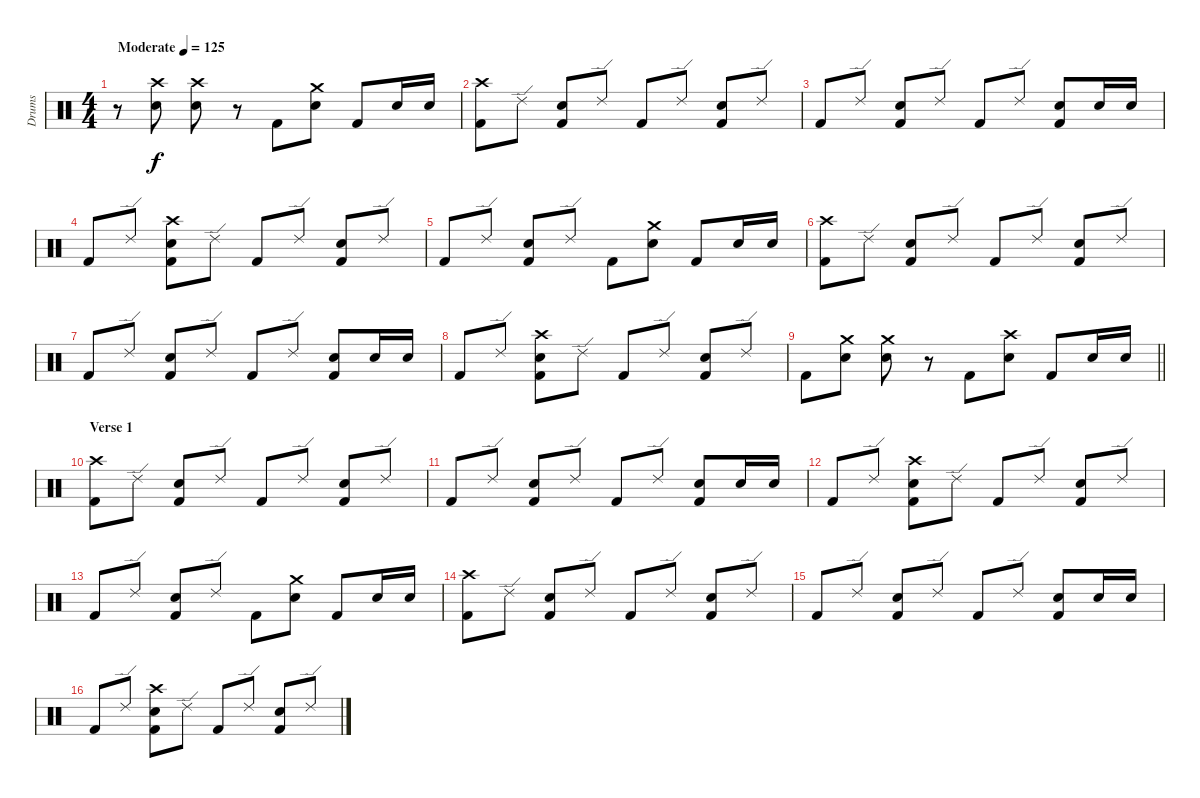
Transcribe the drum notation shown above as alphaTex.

\track ("Drums" "Drums") {instrument percussion}
\staff
\articulation defaults
\ts (4 4)
\tempo (125 "Moderate")
\clef neutral
\ks c
r.8{dy f} ("Crash high (hit)" "Electric Snare (hit)").8 ("Crash high (hit)" "Electric Snare (hit)").8 r.8 "Kick (hit) 2".8 ("Crash medium (hit)" "Electric Snare (hit)").8 "Kick (hit) 2".8 "Electric Snare (hit)".16 "Electric Snare (hit)".16 |
("Crash high (hit)" "Kick (hit) 2").8 "Ride (edge) 2".8 ("Electric Snare (hit)" "Kick (hit) 2").8 "Ride (edge) 2".8 "Kick (hit) 2".8 "Ride (edge) 2".8 ("Electric Snare (hit)" "Kick (hit) 2").8 "Ride (edge) 2".8 |
"Kick (hit) 2".8 "Ride (edge) 2".8 ("Electric Snare (hit)" "Kick (hit) 2").8 "Ride (edge) 2".8 "Kick (hit) 2".8 "Ride (edge) 2".8 ("Electric Snare (hit)" "Kick (hit) 2").8 "Electric Snare (hit)".16 "Electric Snare (hit)".16 |
"Kick (hit) 2".8 "Ride (edge) 2".8 ("Crash high (hit)" "Electric Snare (hit)" "Kick (hit) 2").8 "Ride (edge) 2".8 "Kick (hit) 2".8 "Ride (edge) 2".8 ("Electric Snare (hit)" "Kick (hit) 2").8 "Ride (edge) 2".8 |
"Kick (hit) 2".8 "Ride (edge) 2".8 ("Electric Snare (hit)" "Kick (hit) 2").8 "Ride (edge) 2".8 "Kick (hit) 2".8 ("Crash medium (hit)" "Electric Snare (hit)").8 "Kick (hit) 2".8 "Electric Snare (hit)".16 "Electric Snare (hit)".16 |
("Crash high (hit)" "Kick (hit) 2").8 "Ride (edge) 2".8 ("Electric Snare (hit)" "Kick (hit) 2").8 "Ride (edge) 2".8 "Kick (hit) 2".8 "Ride (edge) 2".8 ("Electric Snare (hit)" "Kick (hit) 2").8 "Ride (edge) 2".8 |
"Kick (hit) 2".8 "Ride (edge) 2".8 ("Electric Snare (hit)" "Kick (hit) 2").8 "Ride (edge) 2".8 "Kick (hit) 2".8 "Ride (edge) 2".8 ("Electric Snare (hit)" "Kick (hit) 2").8 "Electric Snare (hit)".16 "Electric Snare (hit)".16 |
"Kick (hit) 2".8 "Ride (edge) 2".8 ("Crash high (hit)" "Electric Snare (hit)" "Kick (hit) 2").8 "Ride (edge) 2".8 "Kick (hit) 2".8 "Ride (edge) 2".8 ("Electric Snare (hit)" "Kick (hit) 2").8 "Ride (edge) 2".8 |
\barLineRight lightlight "Kick (hit) 2".8
("Crash medium (hit)" "Electric Snare (hit)").8 ("Crash medium (hit)" "Electric Snare (hit)").8 r.8 "Kick (hit) 2".8 ("Crash high (hit)" "Electric Snare (hit)").8 "Kick (hit) 2".8 "Electric Snare (hit)".16 "Electric Snare (hit)".16 |
\section ("" "Verse 1")
("Crash high (hit)" "Kick (hit) 2").8 "Ride (edge) 2".8 ("Electric Snare (hit)" "Kick (hit) 2").8 "Ride (edge) 2".8 "Kick (hit) 2".8 "Ride (edge) 2".8 ("Electric Snare (hit)" "Kick (hit) 2").8 "Ride (edge) 2".8 |
"Kick (hit) 2".8 "Ride (edge) 2".8 ("Electric Snare (hit)" "Kick (hit) 2").8 "Ride (edge) 2".8 "Kick (hit) 2".8 "Ride (edge) 2".8 ("Electric Snare (hit)" "Kick (hit) 2").8 "Electric Snare (hit)".16 "Electric Snare (hit)".16 |
"Kick (hit) 2".8 "Ride (edge) 2".8 ("Crash high (hit)" "Electric Snare (hit)" "Kick (hit) 2").8 "Ride (edge) 2".8 "Kick (hit) 2".8 "Ride (edge) 2".8 ("Electric Snare (hit)" "Kick (hit) 2").8 "Ride (edge) 2".8 |
"Kick (hit) 2".8 "Ride (edge) 2".8 ("Electric Snare (hit)" "Kick (hit) 2").8 "Ride (edge) 2".8 "Kick (hit) 2".8 ("Crash medium (hit)" "Electric Snare (hit)").8 "Kick (hit) 2".8 "Electric Snare (hit)".16 "Electric Snare (hit)".16 |
("Crash high (hit)" "Kick (hit) 2").8 "Ride (edge) 2".8 ("Electric Snare (hit)" "Kick (hit) 2").8 "Ride (edge) 2".8 "Kick (hit) 2".8 "Ride (edge) 2".8 ("Electric Snare (hit)" "Kick (hit) 2").8 "Ride (edge) 2".8 |
"Kick (hit) 2".8 "Ride (edge) 2".8 ("Electric Snare (hit)" "Kick (hit) 2").8 "Ride (edge) 2".8 "Kick (hit) 2".8 "Ride (edge) 2".8 ("Electric Snare (hit)" "Kick (hit) 2").8 "Electric Snare (hit)".16 "Electric Snare (hit)".16 |
"Kick (hit) 2".8 "Ride (edge) 2".8 ("Crash high (hit)" "Electric Snare (hit)" "Kick (hit) 2").8 "Ride (edge) 2".8 "Kick (hit) 2".8 "Ride (edge) 2".8 ("Electric Snare (hit)" "Kick (hit) 2").8 "Ride (edge) 2".8
